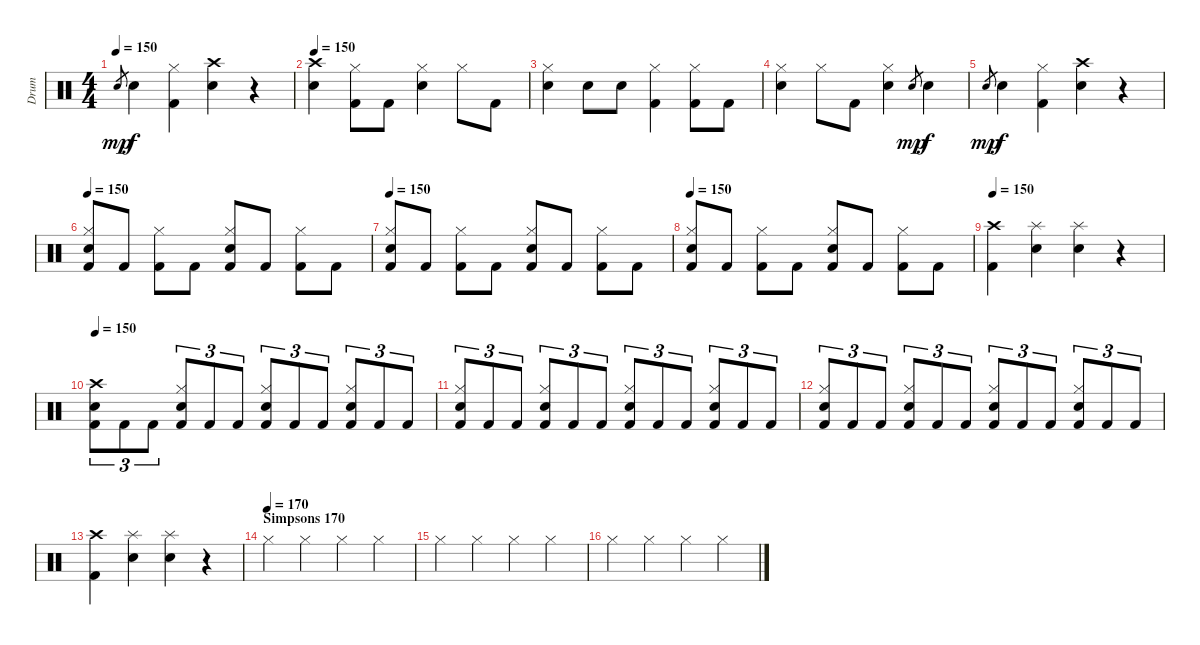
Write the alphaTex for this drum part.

\track ("Drum" "Drum") {instrument percussion}
\staff {score}
\articulation defaults
\ts (4 4)
\tempo 150
\clef neutral
\ks c "Electric Snare (hit)".8{gr dy mp} "Electric Snare (hit)".4{dy f}
("Hi-Hat (closed)" "Kick (hit) 2").4 ("Crash high (hit)" "Electric Snare (hit)").4 r.4 |
\tempo 150
("Crash high (hit)" "Electric Snare (hit)").4 ("Hi-Hat (closed)" "Kick (hit) 2").8 "Kick (hit) 2".8 ("Hi-Hat (closed)" "Electric Snare (hit)").4 "Hi-Hat (closed)".8 "Kick (hit) 2".8 |
("Hi-Hat (closed)" "Electric Snare (hit)").4 "Electric Snare (hit)".8 "Electric Snare (hit)".8 ("Hi-Hat (closed)" "Kick (hit) 2").4 ("Hi-Hat (closed)" "Kick (hit) 2").8 "Kick (hit) 2".8 |
("Hi-Hat (closed)" "Electric Snare (hit)").4 "Hi-Hat (closed)".8 "Kick (hit) 2".8 ("Hi-Hat (closed)" "Electric Snare (hit)").4 "Electric Snare (hit)".8{gr dy mp} "Electric Snare (hit)".4{dy f} |
"Electric Snare (hit)".8{gr dy mp} "Electric Snare (hit)".4{dy f} ("Hi-Hat (closed)" "Kick (hit) 2").4 ("Crash high (hit)" "Electric Snare (hit)").4 r.4 |
\tempo 150
("Hi-Hat (closed)" "Electric Snare (hit)" "Kick (hit) 2").8 "Kick (hit) 2".8 ("Hi-Hat (closed)" "Kick (hit) 2").8 "Kick (hit) 2".8 ("Hi-Hat (closed)" "Electric Snare (hit)" "Kick (hit) 2").8 "Kick (hit) 2".8 ("Hi-Hat (closed)" "Kick (hit) 2").8 "Kick (hit) 2".8 |
\tempo 150
("Hi-Hat (closed)" "Electric Snare (hit)" "Kick (hit) 2").8 "Kick (hit) 2".8 ("Hi-Hat (closed)" "Kick (hit) 2").8 "Kick (hit) 2".8 ("Hi-Hat (closed)" "Electric Snare (hit)" "Kick (hit) 2").8 "Kick (hit) 2".8 ("Hi-Hat (closed)" "Kick (hit) 2").8 "Kick (hit) 2".8 |
\tempo 150
("Hi-Hat (closed)" "Electric Snare (hit)" "Kick (hit) 2").8 "Kick (hit) 2".8 ("Hi-Hat (closed)" "Kick (hit) 2").8 "Kick (hit) 2".8 ("Hi-Hat (closed)" "Electric Snare (hit)" "Kick (hit) 2").8 "Kick (hit) 2".8 ("Hi-Hat (closed)" "Kick (hit) 2").8 "Kick (hit) 2".8 |
\tempo 150
("Crash high (hit)" "Kick (hit) 2").4 ("Splash (hit)" "Electric Snare (hit)").4 ("Splash (hit)" "Electric Snare (hit)").4 r.4 |
\tempo 150
("Crash high (hit)" "Electric Snare (hit)" "Kick (hit) 2").8{tu (3 2)} "Kick (hit) 2".8{tu (3 2)} "Kick (hit) 2".8{tu (3 2)} ("Hi-Hat (closed)" "Electric Snare (hit)" "Kick (hit) 2").8{tu (3 2)} "Kick (hit) 2".8{tu (3 2)} "Kick (hit) 2".8{tu (3 2)} ("Hi-Hat (closed)" "Electric Snare (hit)" "Kick (hit) 2").8{tu (3 2)} "Kick (hit) 2".8{tu (3 2)} "Kick (hit) 2".8{tu (3 2)} ("Hi-Hat (closed)" "Electric Snare (hit)" "Kick (hit) 2").8{tu (3 2)} "Kick (hit) 2".8{tu (3 2)} "Kick (hit) 2".8{tu (3 2)} |
("Hi-Hat (closed)" "Electric Snare (hit)" "Kick (hit) 2").8{tu (3 2)} "Kick (hit) 2".8{tu (3 2)} "Kick (hit) 2".8{tu (3 2)} ("Hi-Hat (closed)" "Electric Snare (hit)" "Kick (hit) 2").8{tu (3 2)} "Kick (hit) 2".8{tu (3 2)} "Kick (hit) 2".8{tu (3 2)} ("Hi-Hat (closed)" "Electric Snare (hit)" "Kick (hit) 2").8{tu (3 2)} "Kick (hit) 2".8{tu (3 2)} "Kick (hit) 2".8{tu (3 2)} ("Hi-Hat (closed)" "Electric Snare (hit)" "Kick (hit) 2").8{tu (3 2)} "Kick (hit) 2".8{tu (3 2)} "Kick (hit) 2".8{tu (3 2)} |
("Hi-Hat (closed)" "Electric Snare (hit)" "Kick (hit) 2").8{tu (3 2)} "Kick (hit) 2".8{tu (3 2)} "Kick (hit) 2".8{tu (3 2)} ("Hi-Hat (closed)" "Electric Snare (hit)" "Kick (hit) 2").8{tu (3 2)} "Kick (hit) 2".8{tu (3 2)} "Kick (hit) 2".8{tu (3 2)} ("Hi-Hat (closed)" "Electric Snare (hit)" "Kick (hit) 2").8{tu (3 2)} "Kick (hit) 2".8{tu (3 2)} "Kick (hit) 2".8{tu (3 2)} ("Hi-Hat (closed)" "Electric Snare (hit)" "Kick (hit) 2").8{tu (3 2)} "Kick (hit) 2".8{tu (3 2)} "Kick (hit) 2".8{tu (3 2)} |
("Crash high (hit)" "Kick (hit) 2").4 ("Splash (hit)" "Electric Snare (hit)").4 ("Splash (hit)" "Electric Snare (hit)").4 r.4 |
\section ("" "Simpsons 170")
\tempo (170)
"Hi-Hat (closed)".4 "Hi-Hat (closed)".4 "Hi-Hat (closed)".4 "Hi-Hat (closed)".4 |
"Hi-Hat (closed)".4 "Hi-Hat (closed)".4 "Hi-Hat (closed)".4 "Hi-Hat (closed)".4 |
"Hi-Hat (closed)".4 "Hi-Hat (closed)".4 "Hi-Hat (closed)".4 "Hi-Hat (closed)".4
